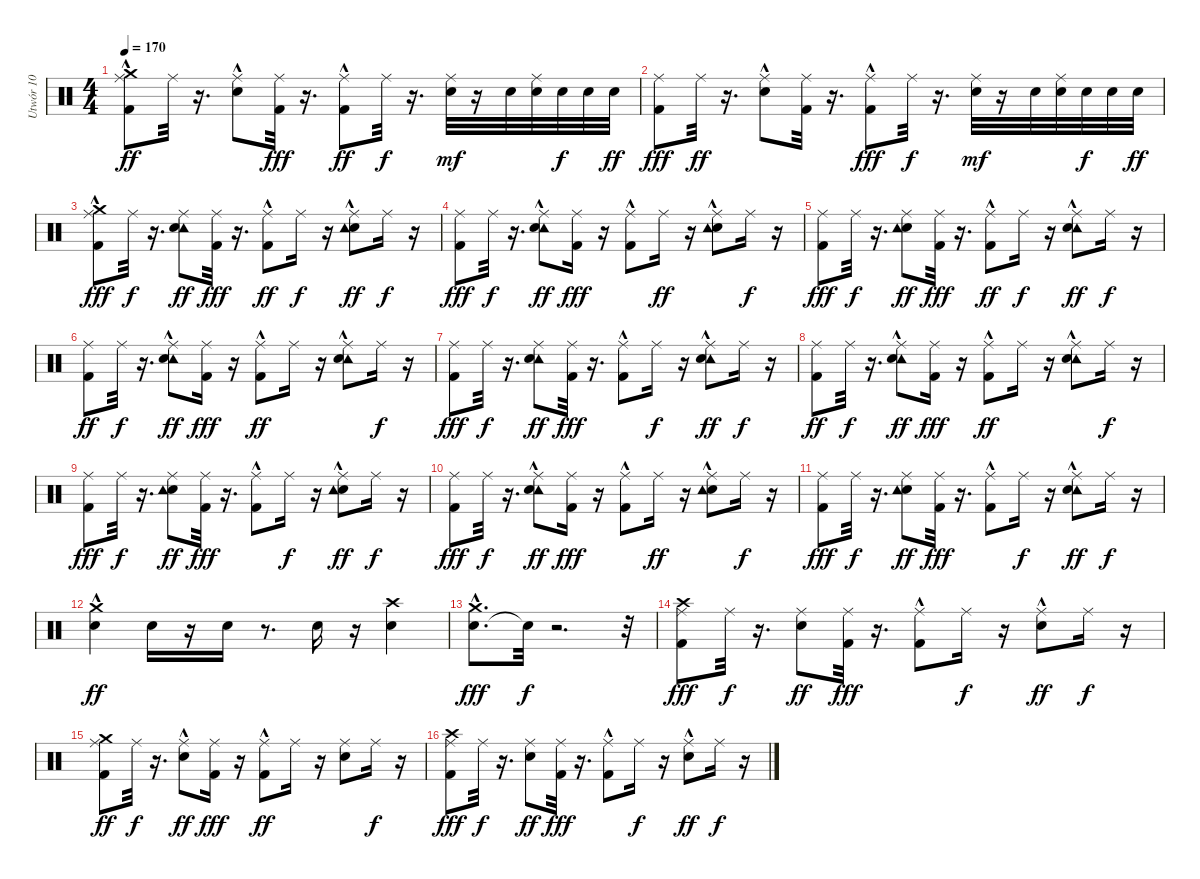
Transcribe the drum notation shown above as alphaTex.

\track ("Utwór 10" "Utwór 10") {instrument percussion}
\staff {score}
\articulation defaults
\ts (4 4)
\tempo 170
\clef neutral
\ks c
("Kick (hit) 2" "Crash medium (hit)"{hac} "Ride (middle)").8{dy ff} "Ride (middle)".32 r.16{d} ("Ride (middle)" "Snare (hit) 2"{hac}).8 ("Ride (middle)" "Kick (hit) 2").32{dy fff} r.16{d} ("Kick (hit) 2"{hac} "Ride (middle)").8{dy ff} "Ride (middle)".32{dy f} r.16{d} ("Ride (middle)" "Snare (hit) 2").32{dy mf} r.16 "Snare (hit) 2".32 ("Ride (middle)" "Snare (hit) 2").32 "Snare (hit) 2".32{dy f} "Snare (hit) 2".32 "Snare (hit) 2".32{dy ff} |
("Ride (middle)" "Kick (hit) 2").8{dy fff} "Ride (middle)".32{dy ff} r.16{d} ("Snare (hit) 2"{hac} "Ride (middle)").8 ("Kick (hit) 2" "Ride (middle)").32 r.16{d} ("Ride (middle)" "Kick (hit) 2"{hac}).8{dy fff} "Ride (middle)".32{dy f} r.16{d} ("Ride (middle)" "Snare (hit) 2").32{dy mf} r.16 "Snare (hit) 2".32 ("Ride (middle)" "Snare (hit) 2").32 "Snare (hit) 2".32{dy f} "Snare (hit) 2".32 "Snare (hit) 2".32{dy ff} |
("Crash medium (hit)"{hac} "Kick (hit) 2" "Ride (middle)").8{dy fff} "Ride (middle)".32{dy f} r.16{d} ("Tambourine (hit)" "Ride (middle)" "Snare (hit) 2").8{dy ff} ("Kick (hit) 2" "Ride (middle)").32{dy fff} r.16{d} ("Kick (hit) 2"{hac} "Ride (middle)").8{dy ff} "Ride (middle)".16{dy f} r.16 ("Ride (middle)" "Snare (hit) 2"{hac} "Tambourine (hit)"{hac}).8{dy ff} "Ride (middle)".16{dy f} r.16 |
("Ride (middle)" "Kick (hit) 2").8{dy fff} "Ride (middle)".32{dy f} r.16{d} ("Ride (middle)" "Tambourine (hit)" "Snare (hit) 2"{hac}).8{dy ff} ("Ride (middle)" "Kick (hit) 2").16{dy fff} r.16 ("Ride (middle)" "Kick (hit) 2"{hac}).8 "Ride (middle)".16{dy ff} r.16 ("Ride (middle)" "Snare (hit) 2" "Tambourine (hit)"{hac}).8 "Ride (middle)".16{dy f} r.16 |
("Ride (middle)" "Kick (hit) 2").8{dy fff} "Ride (middle)".32{dy f} r.16{d} ("Ride (middle)" "Snare (hit) 2" "Tambourine (hit)").8{dy ff} ("Ride (middle)" "Kick (hit) 2").32{dy fff} r.16{d} ("Kick (hit) 2"{hac} "Ride (middle)").8{dy ff} "Ride (middle)".16{dy f} r.16 ("Ride (middle)" "Tambourine (hit)"{hac} "Snare (hit) 2"{hac}).8{dy ff} "Ride (middle)".16{dy f} r.16 |
("Kick (hit) 2" "Ride (middle)").8{dy ff} "Ride (middle)".32{dy f} r.16{d} ("Tambourine (hit)" "Snare (hit) 2"{hac} "Ride (middle)").8{dy ff} ("Ride (middle)" "Kick (hit) 2").16{dy fff} r.16 ("Kick (hit) 2"{hac} "Ride (middle)").8{dy ff} "Ride (middle)".16 r.16 ("Tambourine (hit)"{hac} "Ride (middle)" "Snare (hit) 2").8 "Ride (middle)".16{dy f} r.16 |
("Kick (hit) 2" "Ride (middle)").8{dy fff} "Ride (middle)".32{dy f} r.16{d} ("Tambourine (hit)" "Ride (middle)" "Snare (hit) 2").8{dy ff} ("Ride (middle)" "Kick (hit) 2").32{dy fff} r.16{d} ("Ride (middle)" "Kick (hit) 2"{hac}).8 "Ride (middle)".16{dy f} r.16 ("Ride (middle)" "Tambourine (hit)"{hac} "Snare (hit) 2"{hac}).8{dy ff} "Ride (middle)".16{dy f} r.16 |
("Kick (hit) 2" "Ride (middle)").8{dy ff} "Ride (middle)".32{dy f} r.16{d} ("Ride (middle)" "Tambourine (hit)" "Snare (hit) 2"{hac}).8{dy ff} ("Ride (middle)" "Kick (hit) 2").16{dy fff} r.16 ("Kick (hit) 2"{hac} "Ride (middle)").8{dy ff} "Ride (middle)".16 r.16 ("Tambourine (hit)"{hac} "Snare (hit) 2" "Ride (middle)").8 "Ride (middle)".16{dy f} r.16 |
("Kick (hit) 2" "Ride (middle)").8{dy fff} "Ride (middle)".32{dy f} r.16{d} ("Ride (middle)" "Snare (hit) 2" "Tambourine (hit)").8{dy ff} ("Kick (hit) 2" "Ride (middle)").32{dy fff} r.16{d} ("Ride (middle)" "Kick (hit) 2"{hac}).8 "Ride (middle)".16{dy f} r.16 ("Snare (hit) 2"{hac} "Ride (middle)" "Tambourine (hit)"{hac}).8{dy ff} "Ride (middle)".16{dy f} r.16 |
("Ride (middle)" "Kick (hit) 2").8{dy fff} "Ride (middle)".32{dy f} r.16{d} ("Tambourine (hit)" "Snare (hit) 2"{hac} "Ride (middle)").8{dy ff} ("Kick (hit) 2" "Ride (middle)").16{dy fff} r.16 ("Ride (middle)" "Kick (hit) 2"{hac}).8 "Ride (middle)".16{dy ff} r.16 ("Snare (hit) 2" "Tambourine (hit)"{hac} "Ride (middle)").8 "Ride (middle)".16{dy f} r.16 |
("Ride (middle)" "Kick (hit) 2").8{dy fff} "Ride (middle)".32{dy f} r.16{d} ("Snare (hit) 2" "Ride (middle)" "Tambourine (hit)").8{dy ff} ("Ride (middle)" "Kick (hit) 2").32{dy fff} r.16{d} ("Ride (middle)" "Kick (hit) 2"{hac}).8 "Ride (middle)".16{dy f} r.16 ("Ride (middle)" "Tambourine (hit)"{hac} "Snare (hit) 2"{hac}).8{dy ff} "Ride (middle)".16{dy f} r.16 |
("Snare (hit) 2"{hac} "Crash medium (hit)"{hac}).4{dy ff} "Snare (hit) 2".16 r.16 "Snare (hit) 2".16 r.8{d} "Snare (hit) 2".16 r.16 ("Snare (hit) 2" "Crash high (hit)").4 |
("Snare (hit) 2"{hac} "Crash medium (hit)"{hac}).8{d dy fff} "Snare (hit)"{t}.32{dy f} r.2{d} r.32 |
("Crash high (hit)" "Ride (middle)" "Kick (hit) 2").8{dy fff} "Ride (middle)".32{dy f} r.16{d} ("Ride (middle)" "Snare (hit) 2").8{dy ff} ("Ride (middle)" "Kick (hit) 2").32{dy fff} r.16{d} ("Ride (middle)" "Kick (hit) 2"{hac}).8 "Ride (middle)".16{dy f} r.16 ("Snare (hit) 2"{hac} "Ride (middle)").8{dy ff} "Ride (middle)".16{dy f} r.16 |
("Kick (hit) 2" "Ride (middle)" "Crash medium (hit)").8{dy ff} "Ride (middle)".32{dy f} r.16{d} ("Snare (hit) 2"{hac} "Ride (middle)").8{dy ff} ("Kick (hit) 2" "Ride (middle)").16{dy fff} r.16 ("Kick (hit) 2"{hac} "Ride (middle)").8{dy ff} "Ride (middle)".16 r.16 ("Snare (hit) 2" "Ride (middle)").8 "Ride (middle)".16{dy f} r.16 |
("Ride (middle)" "Crash high (hit)" "Kick (hit) 2").8{dy fff} "Ride (middle)".32{dy f} r.16{d} ("Ride (middle)" "Snare (hit) 2").8{dy ff} ("Kick (hit) 2" "Ride (middle)").32{dy fff} r.16{d} ("Ride (middle)" "Kick (hit) 2"{hac}).8 "Ride (middle)".16{dy f} r.16 ("Ride (middle)" "Snare (hit) 2"{hac}).8{dy ff} "Ride (middle)".16{dy f} r.16
